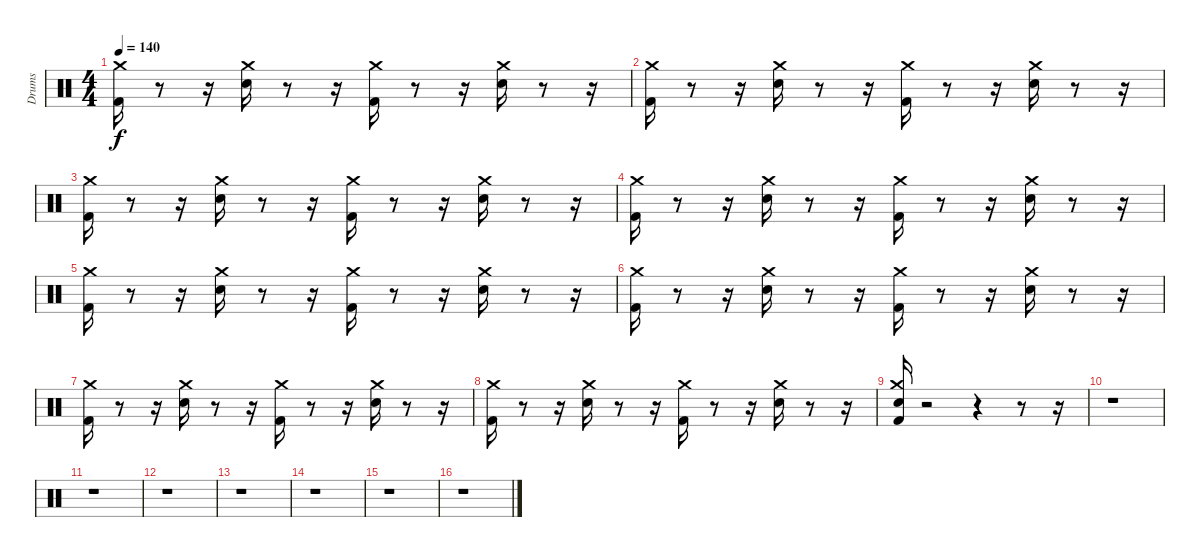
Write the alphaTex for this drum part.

\track ("Drums               " "Drums     ") {instrument percussion}
\staff {score}
\articulation defaults
\ts (4 4)
\tempo 140
\clef neutral
\ks c
("Kick (hit) 2" "Crash medium (hit)").16{dy f} r.8 r.16 ("Electric Snare (hit)" "Crash medium (hit)").16 r.8 r.16 ("Kick (hit) 2" "Crash medium (hit)").16 r.8 r.16 ("Electric Snare (hit)" "Crash medium (hit)").16 r.8 r.16 |
("Kick (hit) 2" "Crash medium (hit)").16 r.8 r.16 ("Electric Snare (hit)" "Crash medium (hit)").16 r.8 r.16 ("Kick (hit) 2" "Crash medium (hit)").16 r.8 r.16 ("Electric Snare (hit)" "Crash medium (hit)").16 r.8 r.16 |
("Kick (hit) 2" "Crash medium (hit)").16 r.8 r.16 ("Electric Snare (hit)" "Crash medium (hit)").16 r.8 r.16 ("Kick (hit) 2" "Crash medium (hit)").16 r.8 r.16 ("Electric Snare (hit)" "Crash medium (hit)").16 r.8 r.16 |
("Kick (hit) 2" "Crash medium (hit)").16 r.8 r.16 ("Electric Snare (hit)" "Crash medium (hit)").16 r.8 r.16 ("Kick (hit) 2" "Crash medium (hit)").16 r.8 r.16 ("Electric Snare (hit)" "Crash medium (hit)").16 r.8 r.16 |
("Kick (hit) 2" "Crash medium (hit)").16 r.8 r.16 ("Electric Snare (hit)" "Crash medium (hit)").16 r.8 r.16 ("Kick (hit) 2" "Crash medium (hit)").16 r.8 r.16 ("Electric Snare (hit)" "Crash medium (hit)").16 r.8 r.16 |
("Kick (hit) 2" "Crash medium (hit)").16 r.8 r.16 ("Electric Snare (hit)" "Crash medium (hit)").16 r.8 r.16 ("Kick (hit) 2" "Crash medium (hit)").16 r.8 r.16 ("Electric Snare (hit)" "Crash medium (hit)").16 r.8 r.16 |
("Kick (hit) 2" "Crash medium (hit)").16 r.8 r.16 ("Electric Snare (hit)" "Crash medium (hit)").16 r.8 r.16 ("Kick (hit) 2" "Crash medium (hit)").16 r.8 r.16 ("Electric Snare (hit)" "Crash medium (hit)").16 r.8 r.16 |
("Kick (hit) 2" "Crash medium (hit)").16 r.8 r.16 ("Electric Snare (hit)" "Crash medium (hit)").16 r.8 r.16 ("Kick (hit) 2" "Crash medium (hit)").16 r.8 r.16 ("Electric Snare (hit)" "Crash medium (hit)").16 r.8 r.16 |
("Kick (hit) 2" "Electric Snare (hit)" "Crash medium (hit)").16 r.2 r.4 r.8 r.16 |
r.1 |
r.1 |
r.1 |
r.1 |
r.1 |
r.1 |
r.1
